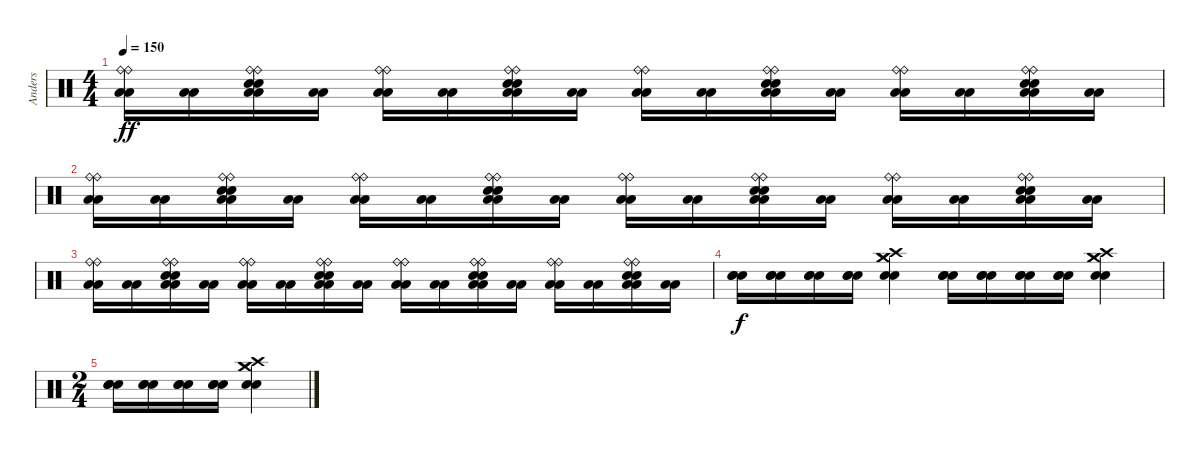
\track ("Anders" "Anders") {instrument percussion}
\staff {score}
\articulation defaults
\ts (4 4)
\tempo 150
\clef neutral
\ks c
("Ride (bell)" "Ride (bell)" "Low Floor Tom (hit)" "Low Floor Tom (hit)").16{dy ff} ("Low Floor Tom (hit)" "Low Floor Tom (hit)").16 ("Ride (bell)" "Ride (bell)" "Electric Snare (hit)" "Electric Snare (hit)" "Low Floor Tom (hit)" "Low Floor Tom (hit)").16 ("Low Floor Tom (hit)" "Low Floor Tom (hit)").16 ("Ride (bell)" "Ride (bell)" "Low Floor Tom (hit)" "Low Floor Tom (hit)").16 ("Low Floor Tom (hit)" "Low Floor Tom (hit)").16 ("Ride (bell)" "Ride (bell)" "Electric Snare (hit)" "Electric Snare (hit)" "Low Floor Tom (hit)" "Low Floor Tom (hit)").16 ("Low Floor Tom (hit)" "Low Floor Tom (hit)").16 ("Ride (bell)" "Ride (bell)" "Low Floor Tom (hit)" "Low Floor Tom (hit)").16 ("Low Floor Tom (hit)" "Low Floor Tom (hit)").16 ("Ride (bell)" "Ride (bell)" "Electric Snare (hit)" "Electric Snare (hit)" "Low Floor Tom (hit)" "Low Floor Tom (hit)").16 ("Low Floor Tom (hit)" "Low Floor Tom (hit)").16 ("Ride (bell)" "Ride (bell)" "Low Floor Tom (hit)" "Low Floor Tom (hit)").16 ("Low Floor Tom (hit)" "Low Floor Tom (hit)").16 ("Ride (bell)" "Ride (bell)" "Electric Snare (hit)" "Electric Snare (hit)" "Low Floor Tom (hit)" "Low Floor Tom (hit)").16 ("Low Floor Tom (hit)" "Low Floor Tom (hit)").16 |
("Ride (bell)" "Ride (bell)" "Low Floor Tom (hit)" "Low Floor Tom (hit)").16 ("Low Floor Tom (hit)" "Low Floor Tom (hit)").16 ("Ride (bell)" "Ride (bell)" "Electric Snare (hit)" "Electric Snare (hit)" "Low Floor Tom (hit)" "Low Floor Tom (hit)").16 ("Low Floor Tom (hit)" "Low Floor Tom (hit)").16 ("Ride (bell)" "Ride (bell)" "Low Floor Tom (hit)" "Low Floor Tom (hit)").16 ("Low Floor Tom (hit)" "Low Floor Tom (hit)").16 ("Ride (bell)" "Ride (bell)" "Electric Snare (hit)" "Electric Snare (hit)" "Low Floor Tom (hit)" "Low Floor Tom (hit)").16 ("Low Floor Tom (hit)" "Low Floor Tom (hit)").16 ("Ride (bell)" "Ride (bell)" "Low Floor Tom (hit)" "Low Floor Tom (hit)").16 ("Low Floor Tom (hit)" "Low Floor Tom (hit)").16 ("Ride (bell)" "Ride (bell)" "Electric Snare (hit)" "Electric Snare (hit)" "Low Floor Tom (hit)" "Low Floor Tom (hit)").16 ("Low Floor Tom (hit)" "Low Floor Tom (hit)").16 ("Ride (bell)" "Ride (bell)" "Low Floor Tom (hit)" "Low Floor Tom (hit)").16 ("Low Floor Tom (hit)" "Low Floor Tom (hit)").16 ("Ride (bell)" "Ride (bell)" "Electric Snare (hit)" "Electric Snare (hit)" "Low Floor Tom (hit)" "Low Floor Tom (hit)").16 ("Low Floor Tom (hit)" "Low Floor Tom (hit)").16 |
("Ride (bell)" "Ride (bell)" "Low Floor Tom (hit)" "Low Floor Tom (hit)").16 ("Low Floor Tom (hit)" "Low Floor Tom (hit)").16 ("Ride (bell)" "Ride (bell)" "Electric Snare (hit)" "Electric Snare (hit)" "Low Floor Tom (hit)" "Low Floor Tom (hit)").16 ("Low Floor Tom (hit)" "Low Floor Tom (hit)").16 ("Ride (bell)" "Ride (bell)" "Low Floor Tom (hit)" "Low Floor Tom (hit)").16 ("Low Floor Tom (hit)" "Low Floor Tom (hit)").16 ("Ride (bell)" "Ride (bell)" "Electric Snare (hit)" "Electric Snare (hit)" "Low Floor Tom (hit)" "Low Floor Tom (hit)").16 ("Low Floor Tom (hit)" "Low Floor Tom (hit)").16 ("Ride (bell)" "Ride (bell)" "Low Floor Tom (hit)" "Low Floor Tom (hit)").16 ("Low Floor Tom (hit)" "Low Floor Tom (hit)").16 ("Ride (bell)" "Ride (bell)" "Electric Snare (hit)" "Electric Snare (hit)" "Low Floor Tom (hit)" "Low Floor Tom (hit)").16 ("Low Floor Tom (hit)" "Low Floor Tom (hit)").16 ("Ride (bell)" "Ride (bell)" "Low Floor Tom (hit)" "Low Floor Tom (hit)").16 ("Low Floor Tom (hit)" "Low Floor Tom (hit)").16 ("Ride (bell)" "Ride (bell)" "Electric Snare (hit)" "Electric Snare (hit)" "Low Floor Tom (hit)" "Low Floor Tom (hit)").16 ("Low Floor Tom (hit)" "Low Floor Tom (hit)").16 |
("Electric Snare (hit)" "Electric Snare (hit)" "Electric Snare (hit)").16{dy f} ("Electric Snare (hit)" "Electric Snare (hit)" "Electric Snare (hit)").16 ("Electric Snare (hit)" "Electric Snare (hit)" "Electric Snare (hit)").16 ("Electric Snare (hit)" "Electric Snare (hit)" "Electric Snare (hit)").16 ("Crash medium (hit)" "Crash high (hit)" "Crash medium (hit)" "Electric Snare (hit)" "Electric Snare (hit)").4 ("Electric Snare (hit)" "Electric Snare (hit)" "Electric Snare (hit)").16 ("Electric Snare (hit)" "Electric Snare (hit)" "Electric Snare (hit)").16 ("Electric Snare (hit)" "Electric Snare (hit)" "Electric Snare (hit)").16 ("Electric Snare (hit)" "Electric Snare (hit)" "Electric Snare (hit)").16 ("Crash medium (hit)" "Crash high (hit)" "Crash medium (hit)" "Electric Snare (hit)" "Electric Snare (hit)").4 |
\ts (2 4)
("Electric Snare (hit)" "Electric Snare (hit)" "Electric Snare (hit)").16 ("Electric Snare (hit)" "Electric Snare (hit)" "Electric Snare (hit)").16 ("Electric Snare (hit)" "Electric Snare (hit)" "Electric Snare (hit)").16 ("Electric Snare (hit)" "Electric Snare (hit)" "Electric Snare (hit)").16 ("Crash medium (hit)" "Crash high (hit)" "Crash medium (hit)" "Electric Snare (hit)" "Electric Snare (hit)").4
